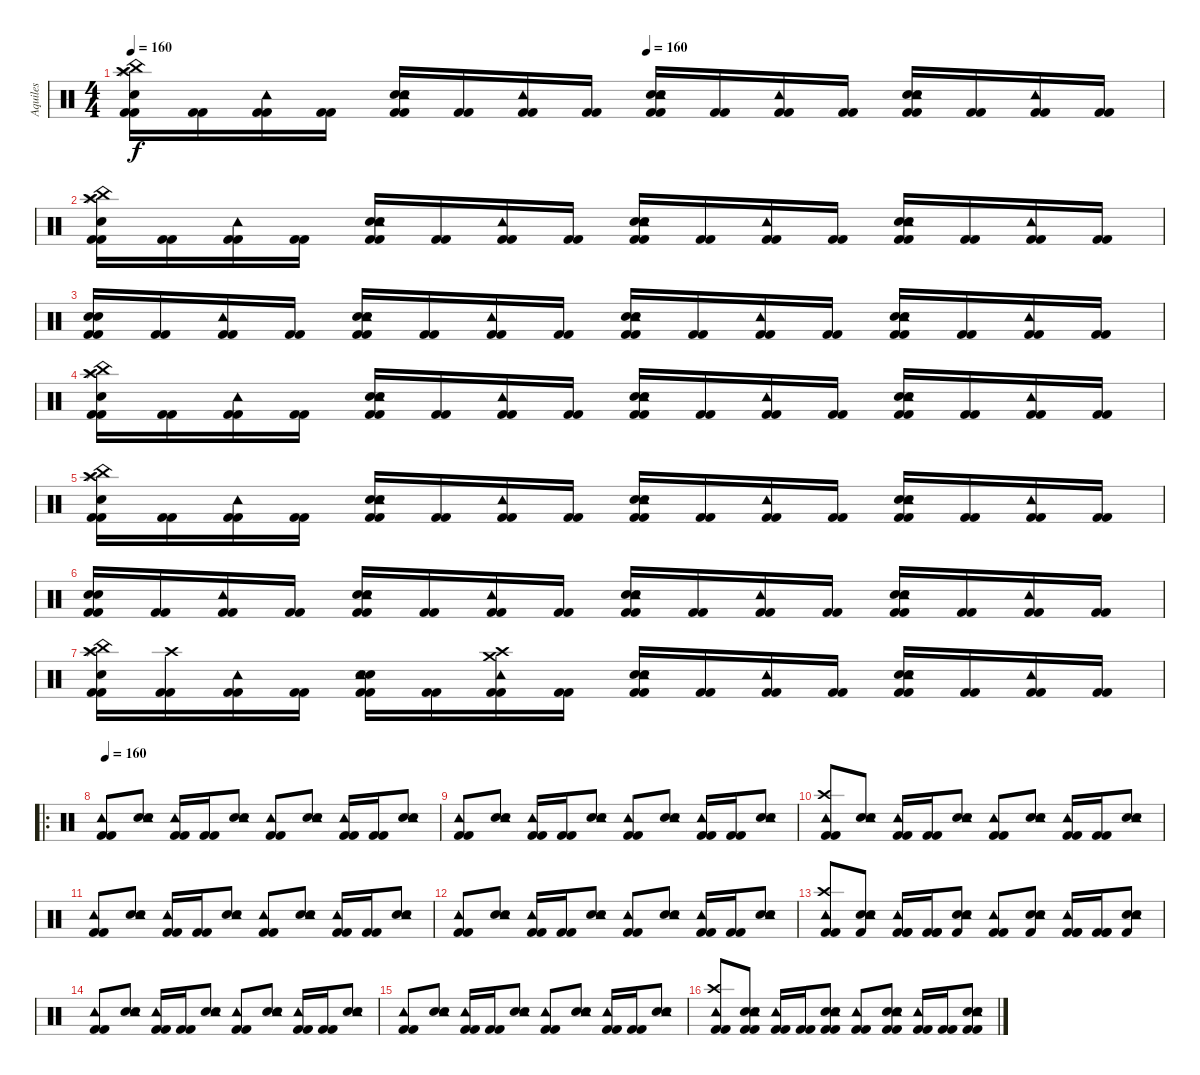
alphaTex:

\track ("Aquiles" "Aquiles") {instrument percussion}
\staff {score}
\articulation defaults
\ts (4 4)
\tempo 160
\tempo (160 0.5)
\clef neutral
\ks c
("Kick (hit) 2" "Kick (hit) 2" "Electric Snare (hit)" "Crash high (hit)" "Splash (hit)" "China (hit)").16{dy f} ("Kick (hit) 2" "Kick (hit) 2").16 ("Kick (hit) 2" "Kick (hit) 2" "Tambourine (hit)").16 ("Kick (hit) 2" "Kick (hit) 2").16 ("Kick (hit) 2" "Kick (hit) 2" "Electric Snare (hit)" "Electric Snare (hit)" "Tambourine (hit)").16 ("Kick (hit) 2" "Kick (hit) 2").16 ("Kick (hit) 2" "Kick (hit) 2" "Tambourine (hit)").16 ("Kick (hit) 2" "Kick (hit) 2").16 ("Kick (hit) 2" "Kick (hit) 2" "Electric Snare (hit)" "Electric Snare (hit)" "Tambourine (hit)").16 ("Kick (hit) 2" "Kick (hit) 2").16 ("Kick (hit) 2" "Kick (hit) 2" "Tambourine (hit)").16 ("Kick (hit) 2" "Kick (hit) 2").16 ("Kick (hit) 2" "Kick (hit) 2" "Electric Snare (hit)" "Electric Snare (hit)" "Tambourine (hit)").16 ("Kick (hit) 2" "Kick (hit) 2").16 ("Kick (hit) 2" "Kick (hit) 2" "Tambourine (hit)").16 ("Kick (hit) 2" "Kick (hit) 2").16 |
("Kick (hit) 2" "Kick (hit) 2" "Electric Snare (hit)" "Crash high (hit)" "Splash (hit)" "China (hit)").16 ("Kick (hit) 2" "Kick (hit) 2").16 ("Kick (hit) 2" "Kick (hit) 2" "Tambourine (hit)").16 ("Kick (hit) 2" "Kick (hit) 2").16 ("Kick (hit) 2" "Kick (hit) 2" "Electric Snare (hit)" "Electric Snare (hit)" "Tambourine (hit)").16 ("Kick (hit) 2" "Kick (hit) 2").16 ("Kick (hit) 2" "Kick (hit) 2" "Tambourine (hit)").16 ("Kick (hit) 2" "Kick (hit) 2").16 ("Kick (hit) 2" "Kick (hit) 2" "Electric Snare (hit)" "Electric Snare (hit)" "Tambourine (hit)").16 ("Kick (hit) 2" "Kick (hit) 2").16 ("Kick (hit) 2" "Kick (hit) 2" "Tambourine (hit)").16 ("Kick (hit) 2" "Kick (hit) 2").16 ("Kick (hit) 2" "Kick (hit) 2" "Electric Snare (hit)" "Electric Snare (hit)" "Tambourine (hit)").16 ("Kick (hit) 2" "Kick (hit) 2").16 ("Kick (hit) 2" "Kick (hit) 2" "Tambourine (hit)").16 ("Kick (hit) 2" "Kick (hit) 2").16 |
("Kick (hit) 2" "Kick (hit) 2" "Electric Snare (hit)" "Electric Snare (hit)").16 ("Kick (hit) 2" "Kick (hit) 2").16 ("Kick (hit) 2" "Kick (hit) 2" "Tambourine (hit)").16 ("Kick (hit) 2" "Kick (hit) 2").16 ("Kick (hit) 2" "Kick (hit) 2" "Electric Snare (hit)" "Electric Snare (hit)" "Tambourine (hit)").16 ("Kick (hit) 2" "Kick (hit) 2").16 ("Kick (hit) 2" "Kick (hit) 2" "Tambourine (hit)").16 ("Kick (hit) 2" "Kick (hit) 2").16 ("Kick (hit) 2" "Kick (hit) 2" "Electric Snare (hit)" "Electric Snare (hit)" "Tambourine (hit)").16 ("Kick (hit) 2" "Kick (hit) 2").16 ("Kick (hit) 2" "Kick (hit) 2" "Tambourine (hit)").16 ("Kick (hit) 2" "Kick (hit) 2").16 ("Kick (hit) 2" "Kick (hit) 2" "Electric Snare (hit)" "Electric Snare (hit)" "Tambourine (hit)").16 ("Kick (hit) 2" "Kick (hit) 2").16 ("Kick (hit) 2" "Kick (hit) 2" "Tambourine (hit)").16 ("Kick (hit) 2" "Kick (hit) 2").16 |
("Kick (hit) 2" "Kick (hit) 2" "Electric Snare (hit)" "Crash high (hit)" "Splash (hit)" "China (hit)").16 ("Kick (hit) 2" "Kick (hit) 2").16 ("Kick (hit) 2" "Kick (hit) 2" "Tambourine (hit)").16 ("Kick (hit) 2" "Kick (hit) 2").16 ("Kick (hit) 2" "Kick (hit) 2" "Electric Snare (hit)" "Electric Snare (hit)" "Tambourine (hit)").16 ("Kick (hit) 2" "Kick (hit) 2").16 ("Kick (hit) 2" "Kick (hit) 2" "Tambourine (hit)").16 ("Kick (hit) 2" "Kick (hit) 2").16 ("Kick (hit) 2" "Kick (hit) 2" "Electric Snare (hit)" "Electric Snare (hit)" "Tambourine (hit)").16 ("Kick (hit) 2" "Kick (hit) 2").16 ("Kick (hit) 2" "Kick (hit) 2" "Tambourine (hit)").16 ("Kick (hit) 2" "Kick (hit) 2").16 ("Kick (hit) 2" "Kick (hit) 2" "Electric Snare (hit)" "Electric Snare (hit)" "Tambourine (hit)").16 ("Kick (hit) 2" "Kick (hit) 2").16 ("Kick (hit) 2" "Kick (hit) 2" "Tambourine (hit)").16 ("Kick (hit) 2" "Kick (hit) 2").16 |
("Kick (hit) 2" "Kick (hit) 2" "Electric Snare (hit)" "Crash high (hit)" "Splash (hit)" "China (hit)").16 ("Kick (hit) 2" "Kick (hit) 2").16 ("Kick (hit) 2" "Kick (hit) 2" "Tambourine (hit)").16 ("Kick (hit) 2" "Kick (hit) 2").16 ("Kick (hit) 2" "Kick (hit) 2" "Electric Snare (hit)" "Electric Snare (hit)" "Tambourine (hit)").16 ("Kick (hit) 2" "Kick (hit) 2").16 ("Kick (hit) 2" "Kick (hit) 2" "Tambourine (hit)").16 ("Kick (hit) 2" "Kick (hit) 2").16 ("Kick (hit) 2" "Kick (hit) 2" "Electric Snare (hit)" "Electric Snare (hit)" "Tambourine (hit)").16 ("Kick (hit) 2" "Kick (hit) 2").16 ("Kick (hit) 2" "Kick (hit) 2" "Tambourine (hit)").16 ("Kick (hit) 2" "Kick (hit) 2").16 ("Kick (hit) 2" "Kick (hit) 2" "Electric Snare (hit)" "Electric Snare (hit)" "Tambourine (hit)").16 ("Kick (hit) 2" "Kick (hit) 2").16 ("Kick (hit) 2" "Kick (hit) 2" "Tambourine (hit)").16 ("Kick (hit) 2" "Kick (hit) 2").16 |
("Kick (hit) 2" "Kick (hit) 2" "Electric Snare (hit)" "Electric Snare (hit)").16 ("Kick (hit) 2" "Kick (hit) 2").16 ("Kick (hit) 2" "Kick (hit) 2" "Tambourine (hit)").16 ("Kick (hit) 2" "Kick (hit) 2").16 ("Kick (hit) 2" "Kick (hit) 2" "Electric Snare (hit)" "Electric Snare (hit)" "Tambourine (hit)").16 ("Kick (hit) 2" "Kick (hit) 2").16 ("Kick (hit) 2" "Kick (hit) 2" "Tambourine (hit)").16 ("Kick (hit) 2" "Kick (hit) 2").16 ("Kick (hit) 2" "Kick (hit) 2" "Electric Snare (hit)" "Electric Snare (hit)" "Tambourine (hit)").16 ("Kick (hit) 2" "Kick (hit) 2").16 ("Kick (hit) 2" "Kick (hit) 2" "Tambourine (hit)").16 ("Kick (hit) 2" "Kick (hit) 2").16 ("Kick (hit) 2" "Kick (hit) 2" "Electric Snare (hit)" "Electric Snare (hit)" "Tambourine (hit)").16 ("Kick (hit) 2" "Kick (hit) 2").16 ("Kick (hit) 2" "Kick (hit) 2" "Tambourine (hit)").16 ("Kick (hit) 2" "Kick (hit) 2").16 |
("Kick (hit) 2" "Kick (hit) 2" "Electric Snare (hit)" "Crash high (hit)" "Splash (hit)" "China (hit)").16 ("Kick (hit) 2" "Kick (hit) 2" "Crash high (hit)").16 ("Kick (hit) 2" "Kick (hit) 2" "Tambourine (hit)").16 ("Kick (hit) 2" "Kick (hit) 2").16 ("Kick (hit) 2" "Kick (hit) 2" "Electric Snare (hit)" "Electric Snare (hit)" "Tambourine (hit)").16 ("Kick (hit) 2" "Kick (hit) 2").16 ("Kick (hit) 2" "Kick (hit) 2" "Crash high (hit)" "Tambourine (hit)" "Crash medium (hit)").16 ("Kick (hit) 2" "Kick (hit) 2").16 ("Kick (hit) 2" "Kick (hit) 2" "Electric Snare (hit)" "Electric Snare (hit)" "Tambourine (hit)").16 ("Kick (hit) 2" "Kick (hit) 2").16 ("Kick (hit) 2" "Kick (hit) 2" "Tambourine (hit)").16 ("Kick (hit) 2" "Kick (hit) 2").16 ("Kick (hit) 2" "Kick (hit) 2" "Electric Snare (hit)" "Electric Snare (hit)" "Tambourine (hit)").16 ("Kick (hit) 2" "Kick (hit) 2").16 ("Kick (hit) 2" "Kick (hit) 2" "Tambourine (hit)").16 ("Kick (hit) 2" "Kick (hit) 2").16 |
\ro
\tempo 160
("Kick (hit) 2" "Kick (hit) 2" "Tambourine (hit)").8 ("Electric Snare (hit)" "Electric Snare (hit)" "Tambourine (hit)").8 ("Kick (hit) 2" "Kick (hit) 2" "Tambourine (hit)").16 ("Kick (hit) 2" "Kick (hit) 2").16 ("Electric Snare (hit)" "Electric Snare (hit)" "Tambourine (hit)").8 ("Kick (hit) 2" "Kick (hit) 2" "Tambourine (hit)").8 ("Electric Snare (hit)" "Electric Snare (hit)" "Tambourine (hit)").8 ("Kick (hit) 2" "Kick (hit) 2" "Tambourine (hit)").16 ("Kick (hit) 2" "Kick (hit) 2").16 ("Electric Snare (hit)" "Electric Snare (hit)" "Tambourine (hit)").8 |
("Kick (hit) 2" "Kick (hit) 2" "Tambourine (hit)").8 ("Electric Snare (hit)" "Electric Snare (hit)" "Tambourine (hit)").8 ("Kick (hit) 2" "Kick (hit) 2" "Tambourine (hit)").16 ("Kick (hit) 2" "Kick (hit) 2").16 ("Electric Snare (hit)" "Electric Snare (hit)" "Tambourine (hit)").8 ("Kick (hit) 2" "Kick (hit) 2" "Tambourine (hit)").8 ("Electric Snare (hit)" "Electric Snare (hit)" "Tambourine (hit)").8 ("Kick (hit) 2" "Kick (hit) 2" "Tambourine (hit)").16 ("Kick (hit) 2" "Kick (hit) 2").16 ("Electric Snare (hit)" "Electric Snare (hit)" "Tambourine (hit)").8 |
("Kick (hit) 2" "Kick (hit) 2" "Tambourine (hit)" "Crash high (hit)").8 ("Electric Snare (hit)" "Electric Snare (hit)" "Tambourine (hit)").8 ("Kick (hit) 2" "Kick (hit) 2" "Tambourine (hit)").16 ("Kick (hit) 2" "Kick (hit) 2").16 ("Electric Snare (hit)" "Electric Snare (hit)" "Tambourine (hit)").8 ("Kick (hit) 2" "Kick (hit) 2" "Tambourine (hit)").8 ("Electric Snare (hit)" "Electric Snare (hit)" "Tambourine (hit)").8 ("Kick (hit) 2" "Kick (hit) 2" "Tambourine (hit)").16 ("Kick (hit) 2" "Kick (hit) 2").16 ("Electric Snare (hit)" "Electric Snare (hit)" "Tambourine (hit)").8 |
("Kick (hit) 2" "Kick (hit) 2" "Tambourine (hit)").8 ("Electric Snare (hit)" "Electric Snare (hit)" "Tambourine (hit)").8 ("Kick (hit) 2" "Kick (hit) 2" "Tambourine (hit)").16 ("Kick (hit) 2" "Kick (hit) 2").16 ("Electric Snare (hit)" "Electric Snare (hit)" "Tambourine (hit)").8 ("Kick (hit) 2" "Kick (hit) 2" "Tambourine (hit)").8 ("Electric Snare (hit)" "Electric Snare (hit)" "Tambourine (hit)").8 ("Kick (hit) 2" "Kick (hit) 2" "Tambourine (hit)").16 ("Kick (hit) 2" "Kick (hit) 2").16 ("Electric Snare (hit)" "Electric Snare (hit)" "Tambourine (hit)").8 |
("Kick (hit) 2" "Kick (hit) 2" "Tambourine (hit)").8 ("Electric Snare (hit)" "Electric Snare (hit)" "Tambourine (hit)").8 ("Kick (hit) 2" "Kick (hit) 2" "Tambourine (hit)").16 ("Kick (hit) 2" "Kick (hit) 2").16 ("Electric Snare (hit)" "Electric Snare (hit)" "Tambourine (hit)").8 ("Kick (hit) 2" "Kick (hit) 2" "Tambourine (hit)").8 ("Electric Snare (hit)" "Electric Snare (hit)" "Tambourine (hit)").8 ("Kick (hit) 2" "Kick (hit) 2" "Tambourine (hit)").16 ("Kick (hit) 2" "Kick (hit) 2").16 ("Electric Snare (hit)" "Electric Snare (hit)" "Tambourine (hit)").8 |
("Kick (hit) 2" "Kick (hit) 2" "Tambourine (hit)" "Crash high (hit)").8 ("Kick (hit) 2" "Electric Snare (hit)" "Electric Snare (hit)" "Tambourine (hit)").8 ("Kick (hit) 2" "Kick (hit) 2" "Kick (hit) 2" "Tambourine (hit)").16 ("Kick (hit) 2" "Kick (hit) 2" "Kick (hit) 2").16 ("Kick (hit) 2" "Electric Snare (hit)" "Electric Snare (hit)" "Tambourine (hit)").8 ("Kick (hit) 2" "Kick (hit) 2" "Tambourine (hit)").8 ("Kick (hit) 2" "Electric Snare (hit)" "Electric Snare (hit)" "Tambourine (hit)").8 ("Kick (hit) 2" "Kick (hit) 2" "Kick (hit) 2" "Tambourine (hit)").16 ("Kick (hit) 2" "Kick (hit) 2" "Kick (hit) 2").16 ("Kick (hit) 2" "Electric Snare (hit)" "Electric Snare (hit)" "Tambourine (hit)").8 |
("Kick (hit) 2" "Kick (hit) 2" "Tambourine (hit)").8 ("Electric Snare (hit)" "Electric Snare (hit)" "Tambourine (hit)").8 ("Kick (hit) 2" "Kick (hit) 2" "Tambourine (hit)").16 ("Kick (hit) 2" "Kick (hit) 2").16 ("Electric Snare (hit)" "Electric Snare (hit)" "Tambourine (hit)").8 ("Kick (hit) 2" "Kick (hit) 2" "Tambourine (hit)").8 ("Electric Snare (hit)" "Electric Snare (hit)" "Tambourine (hit)").8 ("Kick (hit) 2" "Kick (hit) 2" "Tambourine (hit)").16 ("Kick (hit) 2" "Kick (hit) 2").16 ("Electric Snare (hit)" "Electric Snare (hit)" "Tambourine (hit)").8 |
("Kick (hit) 2" "Kick (hit) 2" "Tambourine (hit)").8 ("Electric Snare (hit)" "Electric Snare (hit)" "Tambourine (hit)").8 ("Kick (hit) 2" "Kick (hit) 2" "Tambourine (hit)").16 ("Kick (hit) 2" "Kick (hit) 2").16 ("Electric Snare (hit)" "Electric Snare (hit)" "Tambourine (hit)").8 ("Kick (hit) 2" "Kick (hit) 2" "Tambourine (hit)").8 ("Electric Snare (hit)" "Electric Snare (hit)" "Tambourine (hit)").8 ("Kick (hit) 2" "Kick (hit) 2" "Tambourine (hit)").16 ("Kick (hit) 2" "Kick (hit) 2").16 ("Electric Snare (hit)" "Electric Snare (hit)" "Tambourine (hit)").8 |
("Kick (hit) 2" "Kick (hit) 2" "Tambourine (hit)" "Crash high (hit)").8 ("Kick (hit) 2" "Electric Snare (hit)" "Electric Snare (hit)" "Tambourine (hit)" "Kick (hit) 2").8 ("Kick (hit) 2" "Kick (hit) 2" "Tambourine (hit)").16 ("Kick (hit) 2" "Kick (hit) 2").16 ("Kick (hit) 2" "Electric Snare (hit)" "Electric Snare (hit)" "Tambourine (hit)" "Kick (hit) 2").8 ("Kick (hit) 2" "Kick (hit) 2" "Tambourine (hit)").8 ("Kick (hit) 2" "Electric Snare (hit)" "Electric Snare (hit)" "Tambourine (hit)" "Kick (hit) 2").8 ("Kick (hit) 2" "Kick (hit) 2" "Tambourine (hit)").16 ("Kick (hit) 2" "Kick (hit) 2").16 ("Kick (hit) 2" "Electric Snare (hit)" "Electric Snare (hit)" "Tambourine (hit)" "Kick (hit) 2").8
